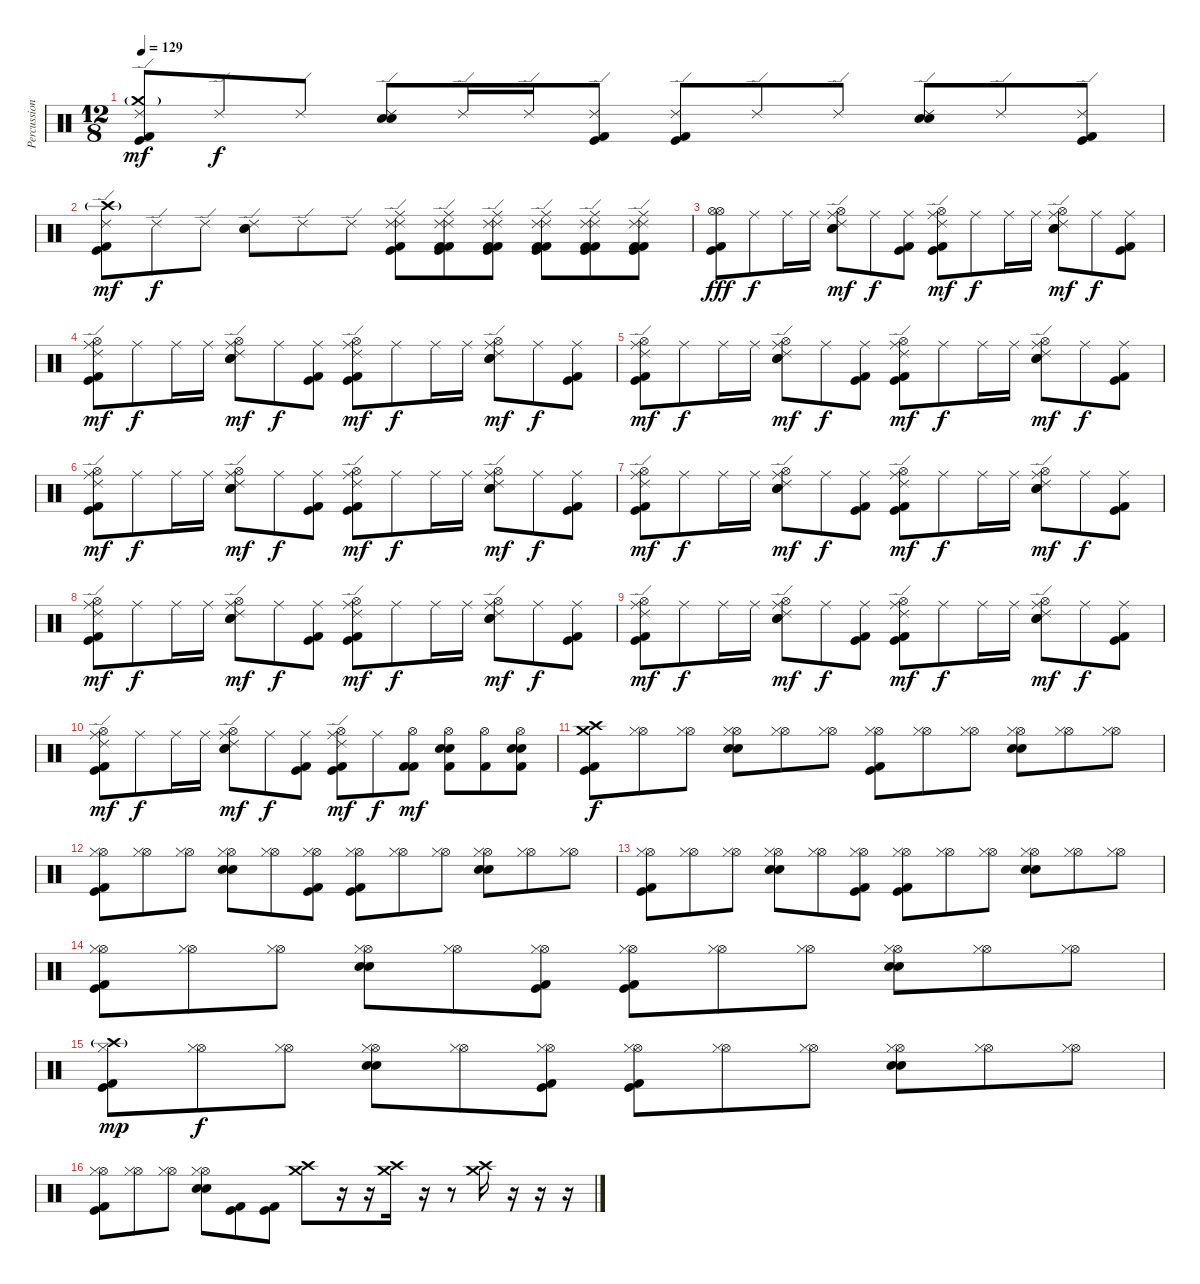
\track ("Percussion" "Percussion") {instrument percussion}
\staff {score}
\articulation defaults
\ts (12 8)
\tempo 129
\clef neutral
\ks c
("Ride (edge) 2" "Crash medium (hit)"{g} "Kick (hit)" "Kick (hit) 2").8{dy mf} "Ride (edge) 2".8{dy f} "Ride (edge) 2".8 ("Ride (edge) 2" "Electric Snare (hit)" "Electric Snare (hit)").8 "Ride (edge) 2".16 "Ride (edge) 2".16 ("Ride (edge) 2" "Kick (hit)" "Kick (hit) 2").8 ("Ride (edge) 2" "Kick (hit)" "Kick (hit) 2").8 "Ride (edge) 2".8 "Ride (edge) 2".8 ("Ride (edge) 2" "Electric Snare (hit)" "Electric Snare (hit)").8 "Ride (edge) 2".8 ("Ride (edge) 2" "Kick (hit)" "Kick (hit) 2").8 |
("Ride (edge) 2" "Crash high (hit)"{g} "Kick (hit)" "Kick (hit) 2").8{dy mf} "Ride (edge) 2".8{dy f} "Ride (edge) 2".8 ("Ride (edge) 2" "Electric Snare (hit)" "Electric Snare (hit)").8 "Ride (edge) 2".8 "Ride (edge) 2".8 ("Ride (edge) 2" "Ride (edge) 2" "Ride (middle)" "Kick (hit)" "Kick (hit) 2").8 ("Ride (edge) 2" "Ride (edge) 2" "Ride (middle)" "Kick (hit)" "Kick (hit) 2" "Kick (hit) 2").8 ("Ride (edge) 2" "Ride (edge) 2" "Ride (middle)" "Kick (hit)" "Kick (hit) 2" "Kick (hit) 2").8 ("Ride (edge) 2" "Ride (edge) 2" "Ride (middle)" "Kick (hit)" "Kick (hit) 2" "Kick (hit) 2").8 ("Ride (edge) 2" "Ride (edge) 2" "Ride (middle)" "Kick (hit)" "Kick (hit) 2" "Kick (hit) 2").8 ("Ride (edge) 2" "Ride (edge) 2" "Ride (middle)" "Kick (hit)" "Kick (hit) 2" "Kick (hit) 2").8 |
("Hi-Hat (open)" "Hi-Hat (open)" "Kick (hit) 2" "Kick (hit)").8{dy fff} "Ride (middle)".8{dy f} "Ride (middle)".16 "Ride (middle)".16 ("Ride (edge) 2" "Ride (middle)" "Electric Snare (hit)" "Electric Snare (hit)" "Hi-Hat (open)").8{dy mf} "Ride (middle)".8{dy f} ("Ride (middle)" "Kick (hit) 2" "Kick (hit)").8 ("Ride (edge) 2" "Ride (middle)" "Hi-Hat (open)" "Kick (hit) 2" "Kick (hit)").8{dy mf} "Ride (middle)".8{dy f} "Ride (middle)".16 "Ride (middle)".16 ("Ride (edge) 2" "Ride (middle)" "Electric Snare (hit)" "Electric Snare (hit)" "Hi-Hat (open)").8{dy mf} "Ride (middle)".8{dy f} ("Ride (middle)" "Kick (hit) 2" "Kick (hit)").8 |
("Ride (edge) 2" "Ride (middle)" "Hi-Hat (open)" "Kick (hit) 2" "Kick (hit)").8{dy mf} "Ride (middle)".8{dy f} "Ride (middle)".16 "Ride (middle)".16 ("Ride (edge) 2" "Ride (middle)" "Electric Snare (hit)" "Electric Snare (hit)" "Hi-Hat (open)").8{dy mf} "Ride (middle)".8{dy f} ("Ride (middle)" "Kick (hit) 2" "Kick (hit)").8 ("Ride (edge) 2" "Ride (middle)" "Hi-Hat (open)" "Kick (hit) 2" "Kick (hit)").8{dy mf} "Ride (middle)".8{dy f} "Ride (middle)".16 "Ride (middle)".16 ("Ride (edge) 2" "Ride (middle)" "Electric Snare (hit)" "Electric Snare (hit)" "Hi-Hat (open)").8{dy mf} "Ride (middle)".8{dy f} ("Ride (middle)" "Kick (hit) 2" "Kick (hit)").8 |
("Ride (edge) 2" "Ride (middle)" "Hi-Hat (open)" "Kick (hit) 2" "Kick (hit)").8{dy mf} "Ride (middle)".8{dy f} "Ride (middle)".16 "Ride (middle)".16 ("Ride (edge) 2" "Ride (middle)" "Electric Snare (hit)" "Electric Snare (hit)" "Hi-Hat (open)").8{dy mf} "Ride (middle)".8{dy f} ("Ride (middle)" "Kick (hit) 2" "Kick (hit)").8 ("Ride (edge) 2" "Ride (middle)" "Hi-Hat (open)" "Kick (hit) 2" "Kick (hit)").8{dy mf} "Ride (middle)".8{dy f} "Ride (middle)".16 "Ride (middle)".16 ("Ride (edge) 2" "Ride (middle)" "Electric Snare (hit)" "Electric Snare (hit)" "Hi-Hat (open)").8{dy mf} "Ride (middle)".8{dy f} ("Ride (middle)" "Kick (hit) 2" "Kick (hit)").8 |
("Ride (edge) 2" "Ride (middle)" "Hi-Hat (open)" "Kick (hit) 2" "Kick (hit)").8{dy mf} "Ride (middle)".8{dy f} "Ride (middle)".16 "Ride (middle)".16 ("Ride (edge) 2" "Ride (middle)" "Electric Snare (hit)" "Electric Snare (hit)" "Hi-Hat (open)").8{dy mf} "Ride (middle)".8{dy f} ("Ride (middle)" "Kick (hit) 2" "Kick (hit)").8 ("Ride (edge) 2" "Ride (middle)" "Hi-Hat (open)" "Kick (hit) 2" "Kick (hit)").8{dy mf} "Ride (middle)".8{dy f} "Ride (middle)".16 "Ride (middle)".16 ("Ride (edge) 2" "Ride (middle)" "Electric Snare (hit)" "Electric Snare (hit)" "Hi-Hat (open)").8{dy mf} "Ride (middle)".8{dy f} ("Ride (middle)" "Kick (hit) 2" "Kick (hit)").8 |
("Ride (edge) 2" "Ride (middle)" "Hi-Hat (open)" "Kick (hit) 2" "Kick (hit)").8{dy mf} "Ride (middle)".8{dy f} "Ride (middle)".16 "Ride (middle)".16 ("Ride (edge) 2" "Ride (middle)" "Electric Snare (hit)" "Electric Snare (hit)" "Hi-Hat (open)").8{dy mf} "Ride (middle)".8{dy f} ("Ride (middle)" "Kick (hit) 2" "Kick (hit)").8 ("Ride (edge) 2" "Ride (middle)" "Hi-Hat (open)" "Kick (hit) 2" "Kick (hit)").8{dy mf} "Ride (middle)".8{dy f} "Ride (middle)".16 "Ride (middle)".16 ("Ride (edge) 2" "Ride (middle)" "Electric Snare (hit)" "Electric Snare (hit)" "Hi-Hat (open)").8{dy mf} "Ride (middle)".8{dy f} ("Ride (middle)" "Kick (hit) 2" "Kick (hit)").8 |
("Ride (edge) 2" "Ride (middle)" "Hi-Hat (open)" "Kick (hit) 2" "Kick (hit)").8{dy mf} "Ride (middle)".8{dy f} "Ride (middle)".16 "Ride (middle)".16 ("Ride (edge) 2" "Ride (middle)" "Electric Snare (hit)" "Electric Snare (hit)" "Hi-Hat (open)").8{dy mf} "Ride (middle)".8{dy f} ("Ride (middle)" "Kick (hit) 2" "Kick (hit)").8 ("Ride (edge) 2" "Ride (middle)" "Hi-Hat (open)" "Kick (hit) 2" "Kick (hit)").8{dy mf} "Ride (middle)".8{dy f} "Ride (middle)".16 "Ride (middle)".16 ("Ride (edge) 2" "Ride (middle)" "Electric Snare (hit)" "Electric Snare (hit)" "Hi-Hat (open)").8{dy mf} "Ride (middle)".8{dy f} ("Ride (middle)" "Kick (hit) 2" "Kick (hit)").8 |
("Ride (edge) 2" "Ride (middle)" "Hi-Hat (open)" "Kick (hit) 2" "Kick (hit)").8{dy mf} "Ride (middle)".8{dy f} "Ride (middle)".16 "Ride (middle)".16 ("Ride (edge) 2" "Ride (middle)" "Electric Snare (hit)" "Electric Snare (hit)" "Hi-Hat (open)").8{dy mf} "Ride (middle)".8{dy f} ("Ride (middle)" "Kick (hit) 2" "Kick (hit)").8 ("Ride (edge) 2" "Ride (middle)" "Hi-Hat (open)" "Kick (hit) 2" "Kick (hit)").8{dy mf} "Ride (middle)".8{dy f} "Ride (middle)".16 "Ride (middle)".16 ("Ride (edge) 2" "Ride (middle)" "Electric Snare (hit)" "Electric Snare (hit)" "Hi-Hat (open)").8{dy mf} "Ride (middle)".8{dy f} ("Ride (middle)" "Kick (hit) 2" "Kick (hit)").8 |
("Ride (edge) 2" "Ride (middle)" "Hi-Hat (open)" "Kick (hit) 2" "Kick (hit)").8{dy mf} "Ride (middle)".8{dy f} "Ride (middle)".16 "Ride (middle)".16 ("Ride (edge) 2" "Ride (middle)" "Electric Snare (hit)" "Electric Snare (hit)" "Hi-Hat (open)").8{dy mf} "Ride (middle)".8{dy f} ("Ride (middle)" "Kick (hit) 2" "Kick (hit)").8 ("Ride (edge) 2" "Ride (middle)" "Hi-Hat (open)" "Kick (hit) 2" "Kick (hit)").8{dy mf} "Ride (middle)".8{dy f} ("Hi-Hat (open)" "Kick (hit) 2" "Kick (hit) 2").8{dy mf} ("Hi-Hat (open)" "Electric Snare (hit)" "Electric Snare (hit)" "Kick (hit) 2").8 ("Hi-Hat (open)" "Kick (hit) 2").8 ("Hi-Hat (open)" "Electric Snare (hit)" "Electric Snare (hit)" "Kick (hit) 2").8 |
("Crash high (hit)" "Crash medium (hit)" "Kick (hit)" "Kick (hit) 2").8{dy f} ("Hi-Hat (open)" "Hi-Hat (closed)").8 ("Hi-Hat (open)" "Hi-Hat (closed)").8 ("Hi-Hat (open)" "Hi-Hat (closed)" "Electric Snare (hit)" "Electric Snare (hit)").8 ("Hi-Hat (open)" "Hi-Hat (closed)").8 ("Hi-Hat (open)" "Hi-Hat (closed)").8 ("Hi-Hat (open)" "Hi-Hat (closed)" "Kick (hit)" "Kick (hit) 2").8 ("Hi-Hat (open)" "Hi-Hat (closed)").8 ("Hi-Hat (open)" "Hi-Hat (closed)").8 ("Hi-Hat (open)" "Hi-Hat (closed)" "Electric Snare (hit)" "Electric Snare (hit)").8 ("Hi-Hat (open)" "Hi-Hat (closed)").8 ("Hi-Hat (open)" "Hi-Hat (closed)").8 |
("Hi-Hat (open)" "Hi-Hat (closed)" "Kick (hit)" "Kick (hit) 2").8 ("Hi-Hat (open)" "Hi-Hat (closed)").8 ("Hi-Hat (open)" "Hi-Hat (closed)").8 ("Hi-Hat (open)" "Hi-Hat (closed)" "Electric Snare (hit)" "Electric Snare (hit)").8 ("Hi-Hat (open)" "Hi-Hat (closed)").8 ("Hi-Hat (open)" "Hi-Hat (closed)" "Kick (hit)" "Kick (hit) 2").8 ("Hi-Hat (open)" "Hi-Hat (closed)" "Kick (hit)" "Kick (hit) 2").8 ("Hi-Hat (open)" "Hi-Hat (closed)").8 ("Hi-Hat (open)" "Hi-Hat (closed)").8 ("Hi-Hat (open)" "Hi-Hat (closed)" "Electric Snare (hit)" "Electric Snare (hit)").8 ("Hi-Hat (open)" "Hi-Hat (closed)").8 ("Hi-Hat (open)" "Hi-Hat (closed)").8 |
("Hi-Hat (open)" "Hi-Hat (closed)" "Kick (hit)" "Kick (hit) 2").8 ("Hi-Hat (open)" "Hi-Hat (closed)").8 ("Hi-Hat (open)" "Hi-Hat (closed)").8 ("Hi-Hat (open)" "Hi-Hat (closed)" "Electric Snare (hit)" "Electric Snare (hit)").8 ("Hi-Hat (open)" "Hi-Hat (closed)").8 ("Hi-Hat (open)" "Hi-Hat (closed)" "Kick (hit)" "Kick (hit) 2").8 ("Hi-Hat (open)" "Hi-Hat (closed)" "Kick (hit)" "Kick (hit) 2").8 ("Hi-Hat (open)" "Hi-Hat (closed)").8 ("Hi-Hat (open)" "Hi-Hat (closed)").8 ("Hi-Hat (open)" "Hi-Hat (closed)" "Electric Snare (hit)" "Electric Snare (hit)").8 ("Hi-Hat (open)" "Hi-Hat (closed)").8 ("Hi-Hat (open)" "Hi-Hat (closed)").8 |
("Hi-Hat (open)" "Hi-Hat (closed)" "Kick (hit)" "Kick (hit) 2").8 ("Hi-Hat (open)" "Hi-Hat (closed)").8 ("Hi-Hat (open)" "Hi-Hat (closed)").8 ("Hi-Hat (open)" "Hi-Hat (closed)" "Electric Snare (hit)" "Electric Snare (hit)").8 ("Hi-Hat (open)" "Hi-Hat (closed)").8 ("Hi-Hat (open)" "Hi-Hat (closed)" "Kick (hit)" "Kick (hit) 2").8 ("Hi-Hat (open)" "Hi-Hat (closed)" "Kick (hit)" "Kick (hit) 2").8 ("Hi-Hat (open)" "Hi-Hat (closed)").8 ("Hi-Hat (open)" "Hi-Hat (closed)").8 ("Hi-Hat (open)" "Hi-Hat (closed)" "Electric Snare (hit)" "Electric Snare (hit)").8 ("Hi-Hat (open)" "Hi-Hat (closed)").8 ("Hi-Hat (open)" "Hi-Hat (closed)").8 |
("Crash high (hit)"{g} "Hi-Hat (closed)" "Kick (hit)" "Kick (hit) 2").8{dy mp} ("Hi-Hat (open)" "Hi-Hat (closed)").8{dy f} ("Hi-Hat (open)" "Hi-Hat (closed)").8 ("Hi-Hat (open)" "Hi-Hat (closed)" "Electric Snare (hit)" "Electric Snare (hit)").8 ("Hi-Hat (open)" "Hi-Hat (closed)").8 ("Hi-Hat (open)" "Hi-Hat (closed)" "Kick (hit)" "Kick (hit) 2").8 ("Hi-Hat (open)" "Hi-Hat (closed)" "Kick (hit)" "Kick (hit) 2").8 ("Hi-Hat (open)" "Hi-Hat (closed)").8 ("Hi-Hat (open)" "Hi-Hat (closed)").8 ("Hi-Hat (open)" "Hi-Hat (closed)" "Electric Snare (hit)" "Electric Snare (hit)").8 ("Hi-Hat (open)" "Hi-Hat (closed)").8 ("Hi-Hat (open)" "Hi-Hat (closed)").8 |
("Hi-Hat (open)" "Hi-Hat (closed)" "Kick (hit)" "Kick (hit) 2").8 ("Hi-Hat (open)" "Hi-Hat (closed)").8 ("Hi-Hat (open)" "Hi-Hat (closed)").8 ("Hi-Hat (open)" "Hi-Hat (closed)" "Electric Snare (hit)" "Electric Snare (hit)").8 ("Kick (hit)" "Kick (hit) 2").8 ("Kick (hit)" "Kick (hit) 2").8 ("Crash high (hit)" "Crash medium (hit)").8 r.16 r.16 ("Crash high (hit)" "Crash medium (hit)").16 r.16 r.8 ("Crash high (hit)" "Crash medium (hit)").16 r.16 r.16 r.16
